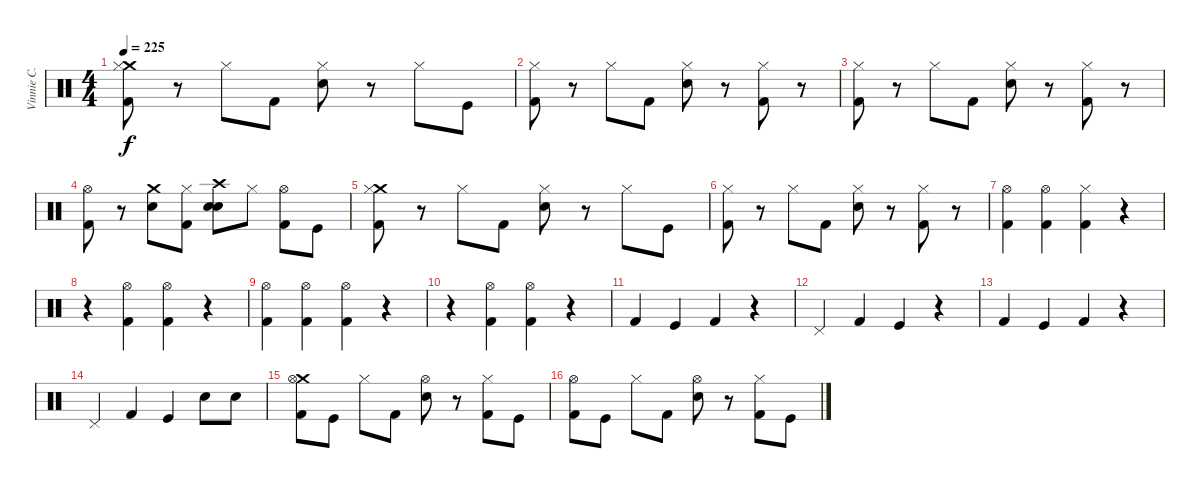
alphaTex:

\track ("Vinnie C." "Vinnie C.") {instrument percussion}
\staff {score}
\articulation defaults
\ts (4 4)
\tempo 225
\clef neutral
\ks c
("Crash medium (hit)" "Hi-Hat (closed)" "Kick (hit) 2").8{dy f} r.8 "Hi-Hat (closed)".8 "Kick (hit) 2".8 ("Hi-Hat (closed)" "Electric Snare (hit)").8 r.8 "Hi-Hat (closed)".8 "Kick (hit)".8 |
("Hi-Hat (closed)" "Kick (hit) 2").8 r.8 "Hi-Hat (closed)".8 "Kick (hit) 2".8 ("Hi-Hat (closed)" "Electric Snare (hit)").8 r.8 ("Hi-Hat (closed)" "Kick (hit) 2").8 r.8 |
("Hi-Hat (closed)" "Kick (hit) 2").8 r.8 "Hi-Hat (closed)".8 "Kick (hit) 2".8 ("Hi-Hat (closed)" "Electric Snare (hit)").8 r.8 ("Hi-Hat (closed)" "Kick (hit) 2").8 r.8 |
("Hi-Hat (open)" "Kick (hit) 2").8 r.8 ("Crash medium (hit)" "Electric Snare (hit)").8 ("Hi-Hat (closed)" "Kick (hit) 2").8 ("Crash high (hit)" "Electric Snare (hit)" "Electric Snare (hit)").8 "Hi-Hat (closed)".8 ("Hi-Hat (open)" "Kick (hit) 2").8 "Kick (hit)".8 |
("Crash medium (hit)" "Hi-Hat (closed)" "Kick (hit) 2").8 r.8 "Hi-Hat (closed)".8 "Kick (hit) 2".8 ("Hi-Hat (closed)" "Electric Snare (hit)").8 r.8 "Hi-Hat (closed)".8 "Kick (hit)".8 |
("Hi-Hat (closed)" "Kick (hit) 2").8 r.8 "Hi-Hat (closed)".8 "Kick (hit) 2".8 ("Hi-Hat (closed)" "Electric Snare (hit)").8 r.8 ("Hi-Hat (closed)" "Kick (hit) 2").8 r.8 |
("Hi-Hat (open)" "Kick (hit) 2").4 ("Hi-Hat (open)" "Kick (hit) 2").4 ("Hi-Hat (closed)" "Kick (hit) 2").4 r.4 |
r.4 ("Hi-Hat (open)" "Kick (hit) 2").4 ("Hi-Hat (open)" "Kick (hit) 2").4 r.4 |
("Hi-Hat (open)" "Kick (hit) 2").4 ("Hi-Hat (open)" "Kick (hit) 2").4 ("Hi-Hat (open)" "Kick (hit) 2").4 r.4 |
r.4 ("Hi-Hat (open)" "Kick (hit) 2").4 ("Hi-Hat (open)" "Kick (hit) 2").4 r.4 |
"Kick (hit) 2".4 "Kick (hit)".4 "Kick (hit) 2".4 r.4 |
"Pedal Hi-Hat (hit)".4 "Kick (hit) 2".4 "Kick (hit)".4 r.4 |
"Kick (hit) 2".4 "Kick (hit)".4 "Kick (hit) 2".4 r.4 |
"Pedal Hi-Hat (hit)".4 "Kick (hit) 2".4 "Kick (hit)".4 "Electric Snare (hit)".8 "Electric Snare (hit)".8 |
("Crash medium (hit)" "Hi-Hat (open)" "Kick (hit) 2").8 "Kick (hit)".8 "Hi-Hat (closed)".8 "Kick (hit) 2".8 ("Hi-Hat (open)" "Electric Snare (hit)").8 r.8 ("Hi-Hat (closed)" "Kick (hit) 2").8 "Kick (hit)".8 |
("Hi-Hat (open)" "Kick (hit) 2").8 "Kick (hit)".8 "Hi-Hat (closed)".8 "Kick (hit) 2".8 ("Hi-Hat (open)" "Electric Snare (hit)").8 r.8 ("Hi-Hat (closed)" "Kick (hit) 2").8 "Kick (hit)".8
